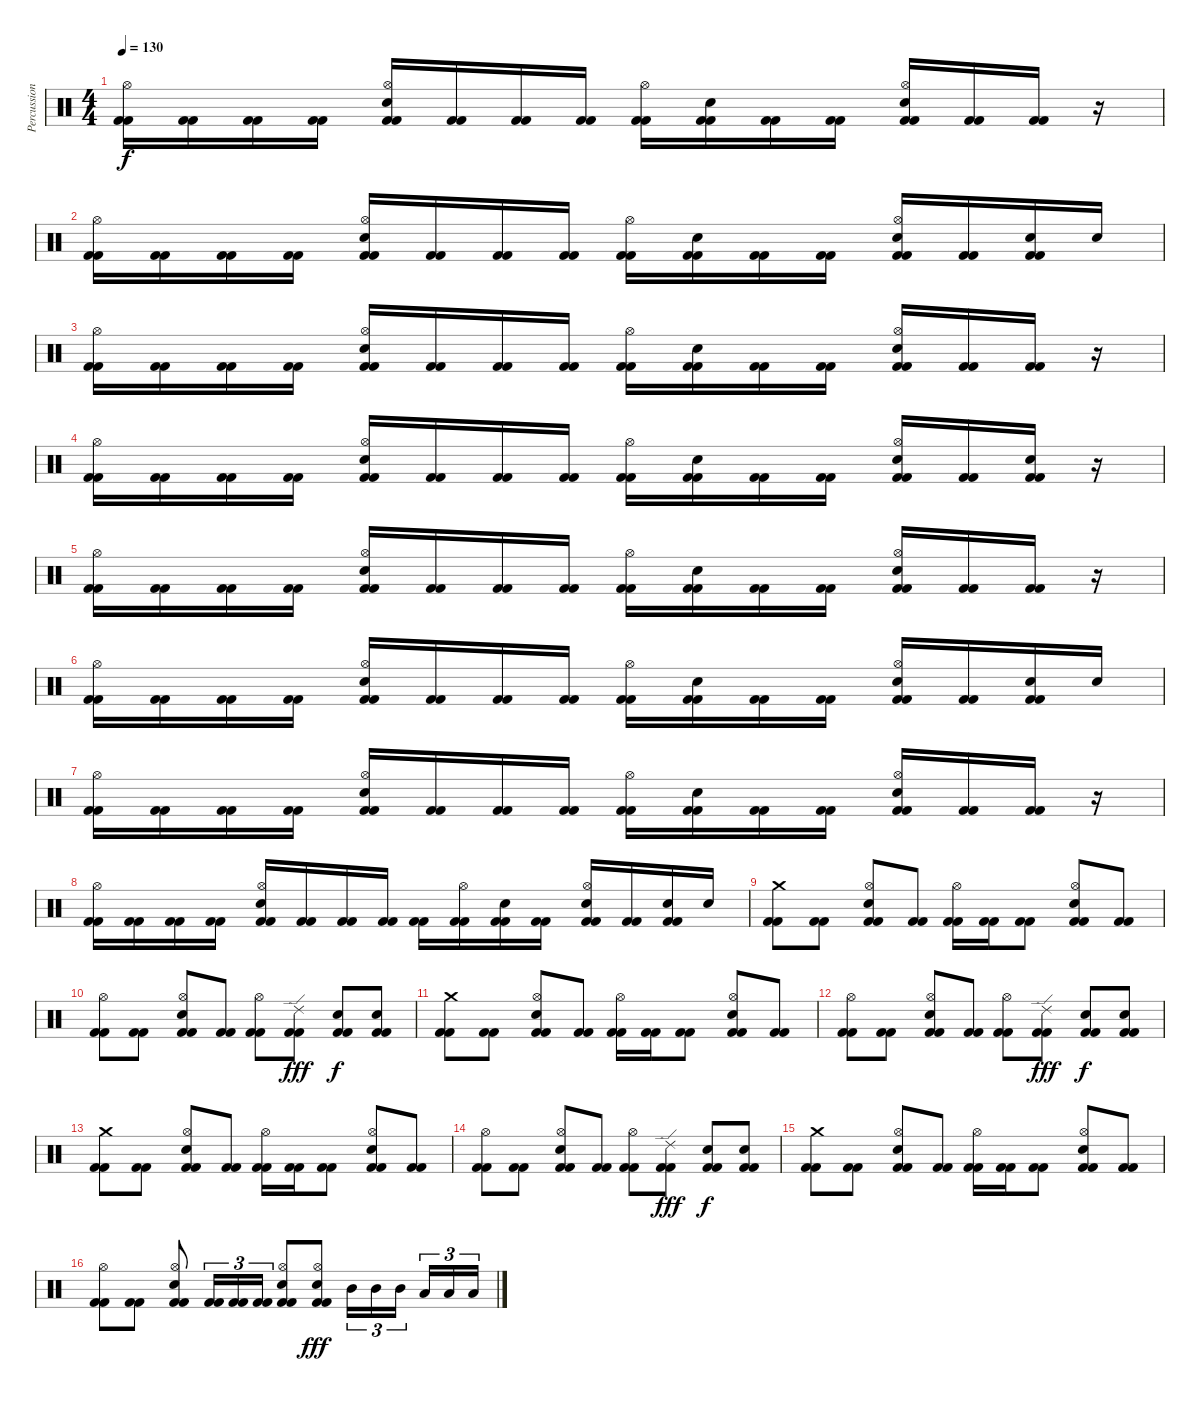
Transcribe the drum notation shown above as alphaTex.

\track ("Percussion" "Percussion") {instrument percussion}
\staff {score}
\articulation defaults
\ts (4 4)
\tempo 130
\clef neutral
\ks c
("Kick (hit) 2" "Kick (hit) 2" "Hi-Hat (open)").16{dy f} ("Kick (hit) 2" "Kick (hit) 2").16 ("Kick (hit) 2" "Kick (hit) 2").16 ("Kick (hit) 2" "Kick (hit) 2").16 ("Kick (hit) 2" "Kick (hit) 2" "Hi-Hat (open)" "Electric Snare (hit)").16 ("Kick (hit) 2" "Kick (hit) 2").16 ("Kick (hit) 2" "Kick (hit) 2").16 ("Kick (hit) 2" "Kick (hit) 2").16 ("Kick (hit) 2" "Kick (hit) 2" "Hi-Hat (open)").16 ("Kick (hit) 2" "Kick (hit) 2" "Electric Snare (hit)").16 ("Kick (hit) 2" "Kick (hit) 2").16 ("Kick (hit) 2" "Kick (hit) 2").16 ("Kick (hit) 2" "Kick (hit) 2" "Hi-Hat (open)" "Electric Snare (hit)").16 ("Kick (hit) 2" "Kick (hit) 2").16 ("Kick (hit) 2" "Kick (hit) 2").16 r.16 |
("Kick (hit) 2" "Kick (hit) 2" "Hi-Hat (open)").16 ("Kick (hit) 2" "Kick (hit) 2").16 ("Kick (hit) 2" "Kick (hit) 2").16 ("Kick (hit) 2" "Kick (hit) 2").16 ("Kick (hit) 2" "Kick (hit) 2" "Electric Snare (hit)" "Hi-Hat (open)").16 ("Kick (hit) 2" "Kick (hit) 2").16 ("Kick (hit) 2" "Kick (hit) 2").16 ("Kick (hit) 2" "Kick (hit) 2").16 ("Kick (hit) 2" "Kick (hit) 2" "Hi-Hat (open)").16 ("Kick (hit) 2" "Kick (hit) 2" "Electric Snare (hit)").16 ("Kick (hit) 2" "Kick (hit) 2").16 ("Kick (hit) 2" "Kick (hit) 2").16 ("Kick (hit) 2" "Kick (hit) 2" "Electric Snare (hit)" "Hi-Hat (open)").16 ("Kick (hit) 2" "Kick (hit) 2").16 ("Kick (hit) 2" "Kick (hit) 2" "Electric Snare (hit)").16 "Electric Snare (hit)".16 |
("Kick (hit) 2" "Kick (hit) 2" "Hi-Hat (open)").16 ("Kick (hit) 2" "Kick (hit) 2").16 ("Kick (hit) 2" "Kick (hit) 2").16 ("Kick (hit) 2" "Kick (hit) 2").16 ("Kick (hit) 2" "Kick (hit) 2" "Hi-Hat (open)" "Electric Snare (hit)").16 ("Kick (hit) 2" "Kick (hit) 2").16 ("Kick (hit) 2" "Kick (hit) 2").16 ("Kick (hit) 2" "Kick (hit) 2").16 ("Kick (hit) 2" "Kick (hit) 2" "Hi-Hat (open)").16 ("Kick (hit) 2" "Kick (hit) 2" "Electric Snare (hit)").16 ("Kick (hit) 2" "Kick (hit) 2").16 ("Kick (hit) 2" "Kick (hit) 2").16 ("Kick (hit) 2" "Kick (hit) 2" "Hi-Hat (open)" "Electric Snare (hit)").16 ("Kick (hit) 2" "Kick (hit) 2").16 ("Kick (hit) 2" "Kick (hit) 2").16 r.16 |
("Kick (hit) 2" "Kick (hit) 2" "Hi-Hat (open)").16 ("Kick (hit) 2" "Kick (hit) 2").16 ("Kick (hit) 2" "Kick (hit) 2").16 ("Kick (hit) 2" "Kick (hit) 2").16 ("Kick (hit) 2" "Kick (hit) 2" "Hi-Hat (open)" "Electric Snare (hit)").16 ("Kick (hit) 2" "Kick (hit) 2").16 ("Kick (hit) 2" "Kick (hit) 2").16 ("Kick (hit) 2" "Kick (hit) 2").16 ("Kick (hit) 2" "Kick (hit) 2" "Hi-Hat (open)").16 ("Kick (hit) 2" "Kick (hit) 2" "Electric Snare (hit)").16 ("Kick (hit) 2" "Kick (hit) 2").16 ("Kick (hit) 2" "Kick (hit) 2").16 ("Kick (hit) 2" "Kick (hit) 2" "Hi-Hat (open)" "Electric Snare (hit)").16 ("Kick (hit) 2" "Kick (hit) 2").16 ("Kick (hit) 2" "Kick (hit) 2" "Electric Snare (hit)").16 r.16 |
("Kick (hit) 2" "Kick (hit) 2" "Hi-Hat (open)").16 ("Kick (hit) 2" "Kick (hit) 2").16 ("Kick (hit) 2" "Kick (hit) 2").16 ("Kick (hit) 2" "Kick (hit) 2").16 ("Kick (hit) 2" "Kick (hit) 2" "Hi-Hat (open)" "Electric Snare (hit)").16 ("Kick (hit) 2" "Kick (hit) 2").16 ("Kick (hit) 2" "Kick (hit) 2").16 ("Kick (hit) 2" "Kick (hit) 2").16 ("Kick (hit) 2" "Kick (hit) 2" "Hi-Hat (open)").16 ("Kick (hit) 2" "Kick (hit) 2" "Electric Snare (hit)").16 ("Kick (hit) 2" "Kick (hit) 2").16 ("Kick (hit) 2" "Kick (hit) 2").16 ("Kick (hit) 2" "Kick (hit) 2" "Hi-Hat (open)" "Electric Snare (hit)").16 ("Kick (hit) 2" "Kick (hit) 2").16 ("Kick (hit) 2" "Kick (hit) 2").16 r.16 |
("Kick (hit) 2" "Kick (hit) 2" "Hi-Hat (open)").16 ("Kick (hit) 2" "Kick (hit) 2").16 ("Kick (hit) 2" "Kick (hit) 2").16 ("Kick (hit) 2" "Kick (hit) 2").16 ("Kick (hit) 2" "Kick (hit) 2" "Hi-Hat (open)" "Electric Snare (hit)").16 ("Kick (hit) 2" "Kick (hit) 2").16 ("Kick (hit) 2" "Kick (hit) 2").16 ("Kick (hit) 2" "Kick (hit) 2").16 ("Kick (hit) 2" "Kick (hit) 2" "Hi-Hat (open)").16 ("Kick (hit) 2" "Kick (hit) 2" "Electric Snare (hit)").16 ("Kick (hit) 2" "Kick (hit) 2").16 ("Kick (hit) 2" "Kick (hit) 2").16 ("Kick (hit) 2" "Kick (hit) 2" "Hi-Hat (open)" "Electric Snare (hit)").16 ("Kick (hit) 2" "Kick (hit) 2").16 ("Kick (hit) 2" "Kick (hit) 2" "Electric Snare (hit)").16 "Electric Snare (hit)".16 |
("Kick (hit) 2" "Kick (hit) 2" "Hi-Hat (open)").16 ("Kick (hit) 2" "Kick (hit) 2").16 ("Kick (hit) 2" "Kick (hit) 2").16 ("Kick (hit) 2" "Kick (hit) 2").16 ("Kick (hit) 2" "Kick (hit) 2" "Hi-Hat (open)" "Electric Snare (hit)").16 ("Kick (hit) 2" "Kick (hit) 2").16 ("Kick (hit) 2" "Kick (hit) 2").16 ("Kick (hit) 2" "Kick (hit) 2").16 ("Kick (hit) 2" "Kick (hit) 2" "Hi-Hat (open)").16 ("Kick (hit) 2" "Kick (hit) 2" "Electric Snare (hit)").16 ("Kick (hit) 2" "Kick (hit) 2").16 ("Kick (hit) 2" "Kick (hit) 2").16 ("Kick (hit) 2" "Kick (hit) 2" "Hi-Hat (open)" "Electric Snare (hit)").16 ("Kick (hit) 2" "Kick (hit) 2").16 ("Kick (hit) 2" "Kick (hit) 2").16 r.16 |
("Kick (hit) 2" "Kick (hit) 2" "Hi-Hat (open)").16 ("Kick (hit) 2" "Kick (hit) 2").16 ("Kick (hit) 2" "Kick (hit) 2").16 ("Kick (hit) 2" "Kick (hit) 2").16 ("Kick (hit) 2" "Kick (hit) 2" "Electric Snare (hit)" "Hi-Hat (open)").16 ("Kick (hit) 2" "Kick (hit) 2").16 ("Kick (hit) 2" "Kick (hit) 2").16 ("Kick (hit) 2" "Kick (hit) 2").16 ("Kick (hit) 2" "Kick (hit) 2").16 ("Kick (hit) 2" "Kick (hit) 2" "Hi-Hat (open)").16 ("Kick (hit) 2" "Kick (hit) 2" "Electric Snare (hit)").16 ("Kick (hit) 2" "Kick (hit) 2").16 ("Kick (hit) 2" "Kick (hit) 2" "Electric Snare (hit)" "Hi-Hat (open)").16 ("Kick (hit) 2" "Kick (hit) 2").16 ("Kick (hit) 2" "Kick (hit) 2" "Electric Snare (hit)").16 "Electric Snare (hit)".16 |
("Kick (hit) 2" "Kick (hit) 2" "Crash medium (hit)").8 ("Kick (hit) 2" "Kick (hit) 2").8 ("Kick (hit) 2" "Kick (hit) 2" "Hi-Hat (open)" "Electric Snare (hit)").8 ("Kick (hit) 2" "Kick (hit) 2").8 ("Kick (hit) 2" "Kick (hit) 2" "Hi-Hat (open)").16 ("Kick (hit) 2" "Kick (hit) 2").16 ("Kick (hit) 2" "Kick (hit) 2").8 ("Kick (hit) 2" "Kick (hit) 2" "Hi-Hat (open)" "Electric Snare (hit)").8 ("Kick (hit) 2" "Kick (hit) 2").8 |
("Kick (hit) 2" "Kick (hit) 2" "Hi-Hat (open)").8 ("Kick (hit) 2" "Kick (hit) 2").8 ("Kick (hit) 2" "Kick (hit) 2" "Hi-Hat (open)" "Electric Snare (hit)").8 ("Kick (hit) 2" "Kick (hit) 2").8 ("Kick (hit) 2" "Kick (hit) 2" "Hi-Hat (open)").8 ("Kick (hit) 2" "Kick (hit) 2" "Ride (edge) 2").8{dy fff} ("Kick (hit) 2" "Kick (hit) 2" "Electric Snare (hit)").8{dy f} ("Kick (hit) 2" "Kick (hit) 2" "Electric Snare (hit)").8 |
("Kick (hit) 2" "Kick (hit) 2" "Crash medium (hit)").8 ("Kick (hit) 2" "Kick (hit) 2").8 ("Kick (hit) 2" "Kick (hit) 2" "Hi-Hat (open)" "Electric Snare (hit)").8 ("Kick (hit) 2" "Kick (hit) 2").8 ("Kick (hit) 2" "Kick (hit) 2" "Hi-Hat (open)").16 ("Kick (hit) 2" "Kick (hit) 2").16 ("Kick (hit) 2" "Kick (hit) 2").8 ("Kick (hit) 2" "Kick (hit) 2" "Hi-Hat (open)" "Electric Snare (hit)").8 ("Kick (hit) 2" "Kick (hit) 2").8 |
("Kick (hit) 2" "Kick (hit) 2" "Hi-Hat (open)").8 ("Kick (hit) 2" "Kick (hit) 2").8 ("Kick (hit) 2" "Kick (hit) 2" "Hi-Hat (open)" "Electric Snare (hit)").8 ("Kick (hit) 2" "Kick (hit) 2").8 ("Kick (hit) 2" "Kick (hit) 2" "Hi-Hat (open)").8 ("Kick (hit) 2" "Kick (hit) 2" "Ride (edge) 2").8{dy fff} ("Kick (hit) 2" "Kick (hit) 2" "Electric Snare (hit)").8{dy f} ("Kick (hit) 2" "Kick (hit) 2" "Electric Snare (hit)").8 |
("Kick (hit) 2" "Kick (hit) 2" "Crash medium (hit)").8 ("Kick (hit) 2" "Kick (hit) 2").8 ("Kick (hit) 2" "Kick (hit) 2" "Hi-Hat (open)" "Electric Snare (hit)").8 ("Kick (hit) 2" "Kick (hit) 2").8 ("Kick (hit) 2" "Kick (hit) 2" "Hi-Hat (open)").16 ("Kick (hit) 2" "Kick (hit) 2").16 ("Kick (hit) 2" "Kick (hit) 2").8 ("Kick (hit) 2" "Kick (hit) 2" "Hi-Hat (open)" "Electric Snare (hit)").8 ("Kick (hit) 2" "Kick (hit) 2").8 |
("Kick (hit) 2" "Kick (hit) 2" "Hi-Hat (open)").8 ("Kick (hit) 2" "Kick (hit) 2").8 ("Kick (hit) 2" "Kick (hit) 2" "Hi-Hat (open)" "Electric Snare (hit)").8 ("Kick (hit) 2" "Kick (hit) 2").8 ("Kick (hit) 2" "Kick (hit) 2" "Hi-Hat (open)").8 ("Kick (hit) 2" "Kick (hit) 2" "Ride (edge) 2").8{dy fff} ("Kick (hit) 2" "Kick (hit) 2" "Electric Snare (hit)").8{dy f} ("Kick (hit) 2" "Kick (hit) 2" "Electric Snare (hit)").8 |
("Kick (hit) 2" "Kick (hit) 2" "Crash medium (hit)").8 ("Kick (hit) 2" "Kick (hit) 2").8 ("Kick (hit) 2" "Kick (hit) 2" "Hi-Hat (open)" "Electric Snare (hit)").8 ("Kick (hit) 2" "Kick (hit) 2").8 ("Kick (hit) 2" "Kick (hit) 2" "Hi-Hat (open)").16 ("Kick (hit) 2" "Kick (hit) 2").16 ("Kick (hit) 2" "Kick (hit) 2").8 ("Kick (hit) 2" "Kick (hit) 2" "Hi-Hat (open)" "Electric Snare (hit)").8 ("Kick (hit) 2" "Kick (hit) 2").8 |
("Kick (hit) 2" "Kick (hit) 2" "Hi-Hat (open)").8 ("Kick (hit) 2" "Kick (hit) 2").8 ("Kick (hit) 2" "Kick (hit) 2" "Hi-Hat (open)" "Electric Snare (hit)").8 ("Kick (hit) 2" "Kick (hit) 2").16{tu (3 2)} ("Kick (hit) 2" "Kick (hit) 2").16{tu (3 2)} ("Kick (hit) 2" "Kick (hit) 2").16{tu (3 2)} ("Kick (hit) 2" "Kick (hit) 2" "Electric Snare (hit)" "Hi-Hat (open)").8 ("Kick (hit) 2" "Kick (hit) 2" "Electric Snare (hit)" "Hi-Hat (open)").8{dy fff} "Mid Tom (hit)".16{tu (3 2)} "Mid Tom (hit)".16{tu (3 2)} "Mid Tom (hit)".16{tu (3 2)} "Low Tom (hit)".16{tu (3 2)} "Low Tom (hit)".16{tu (3 2)} "Low Tom (hit)".16{tu (3 2)}
